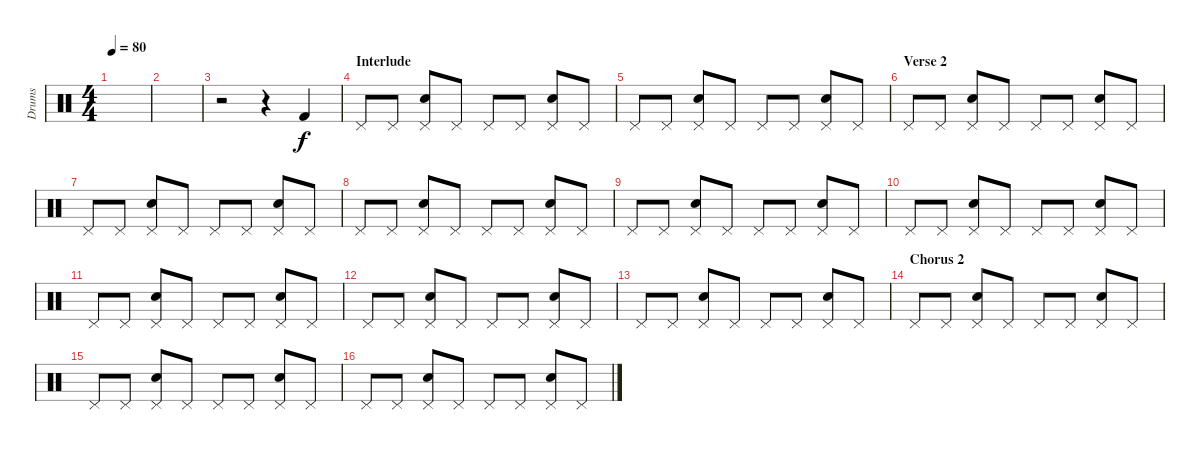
\track ("Drums" "Drums") {instrument percussion}
\staff {score}
\articulation defaults
\ts (4 4)
\tempo 80
\clef neutral
\ks c
|
|
r.2 r.4 "Kick (hit) 2".4 |
\section ("" "Interlude")
"Pedal Hi-Hat (hit)".8 "Pedal Hi-Hat (hit)".8 ("Pedal Hi-Hat (hit)" "Snare (hit) 2").8 "Pedal Hi-Hat (hit)".8 "Pedal Hi-Hat (hit)".8 "Pedal Hi-Hat (hit)".8 ("Pedal Hi-Hat (hit)" "Snare (hit) 2").8 "Pedal Hi-Hat (hit)".8 |
"Pedal Hi-Hat (hit)".8 "Pedal Hi-Hat (hit)".8 ("Pedal Hi-Hat (hit)" "Snare (hit) 2").8 "Pedal Hi-Hat (hit)".8 "Pedal Hi-Hat (hit)".8 "Pedal Hi-Hat (hit)".8 ("Pedal Hi-Hat (hit)" "Snare (hit) 2").8 "Pedal Hi-Hat (hit)".8 |
\section ("" "Verse 2")
"Pedal Hi-Hat (hit)".8 "Pedal Hi-Hat (hit)".8 ("Pedal Hi-Hat (hit)" "Snare (hit) 2").8 "Pedal Hi-Hat (hit)".8 "Pedal Hi-Hat (hit)".8 "Pedal Hi-Hat (hit)".8 ("Pedal Hi-Hat (hit)" "Snare (hit) 2").8 "Pedal Hi-Hat (hit)".8 |
"Pedal Hi-Hat (hit)".8 "Pedal Hi-Hat (hit)".8 ("Pedal Hi-Hat (hit)" "Snare (hit) 2").8 "Pedal Hi-Hat (hit)".8 "Pedal Hi-Hat (hit)".8 "Pedal Hi-Hat (hit)".8 ("Pedal Hi-Hat (hit)" "Snare (hit) 2").8 "Pedal Hi-Hat (hit)".8 |
"Pedal Hi-Hat (hit)".8 "Pedal Hi-Hat (hit)".8 ("Pedal Hi-Hat (hit)" "Snare (hit) 2").8 "Pedal Hi-Hat (hit)".8 "Pedal Hi-Hat (hit)".8 "Pedal Hi-Hat (hit)".8 ("Pedal Hi-Hat (hit)" "Snare (hit) 2").8 "Pedal Hi-Hat (hit)".8 |
"Pedal Hi-Hat (hit)".8 "Pedal Hi-Hat (hit)".8 ("Pedal Hi-Hat (hit)" "Snare (hit) 2").8 "Pedal Hi-Hat (hit)".8 "Pedal Hi-Hat (hit)".8 "Pedal Hi-Hat (hit)".8 ("Pedal Hi-Hat (hit)" "Snare (hit) 2").8 "Pedal Hi-Hat (hit)".8 |
"Pedal Hi-Hat (hit)".8 "Pedal Hi-Hat (hit)".8 ("Pedal Hi-Hat (hit)" "Snare (hit) 2").8 "Pedal Hi-Hat (hit)".8 "Pedal Hi-Hat (hit)".8 "Pedal Hi-Hat (hit)".8 ("Pedal Hi-Hat (hit)" "Snare (hit) 2").8 "Pedal Hi-Hat (hit)".8 |
"Pedal Hi-Hat (hit)".8 "Pedal Hi-Hat (hit)".8 ("Pedal Hi-Hat (hit)" "Snare (hit) 2").8 "Pedal Hi-Hat (hit)".8 "Pedal Hi-Hat (hit)".8 "Pedal Hi-Hat (hit)".8 ("Pedal Hi-Hat (hit)" "Snare (hit) 2").8 "Pedal Hi-Hat (hit)".8 |
"Pedal Hi-Hat (hit)".8 "Pedal Hi-Hat (hit)".8 ("Pedal Hi-Hat (hit)" "Snare (hit) 2").8 "Pedal Hi-Hat (hit)".8 "Pedal Hi-Hat (hit)".8 "Pedal Hi-Hat (hit)".8 ("Pedal Hi-Hat (hit)" "Snare (hit) 2").8 "Pedal Hi-Hat (hit)".8 |
"Pedal Hi-Hat (hit)".8 "Pedal Hi-Hat (hit)".8 ("Pedal Hi-Hat (hit)" "Snare (hit) 2").8 "Pedal Hi-Hat (hit)".8 "Pedal Hi-Hat (hit)".8 "Pedal Hi-Hat (hit)".8 ("Pedal Hi-Hat (hit)" "Snare (hit) 2").8 "Pedal Hi-Hat (hit)".8 |
\section ("" "Chorus 2")
"Pedal Hi-Hat (hit)".8 "Pedal Hi-Hat (hit)".8 ("Pedal Hi-Hat (hit)" "Snare (hit) 2").8 "Pedal Hi-Hat (hit)".8 "Pedal Hi-Hat (hit)".8 "Pedal Hi-Hat (hit)".8 ("Pedal Hi-Hat (hit)" "Snare (hit) 2").8 "Pedal Hi-Hat (hit)".8 |
"Pedal Hi-Hat (hit)".8 "Pedal Hi-Hat (hit)".8 ("Pedal Hi-Hat (hit)" "Snare (hit) 2").8 "Pedal Hi-Hat (hit)".8 "Pedal Hi-Hat (hit)".8 "Pedal Hi-Hat (hit)".8 ("Pedal Hi-Hat (hit)" "Snare (hit) 2").8 "Pedal Hi-Hat (hit)".8 |
"Pedal Hi-Hat (hit)".8 "Pedal Hi-Hat (hit)".8 ("Pedal Hi-Hat (hit)" "Snare (hit) 2").8 "Pedal Hi-Hat (hit)".8 "Pedal Hi-Hat (hit)".8 "Pedal Hi-Hat (hit)".8 ("Pedal Hi-Hat (hit)" "Snare (hit) 2").8 "Pedal Hi-Hat (hit)".8
